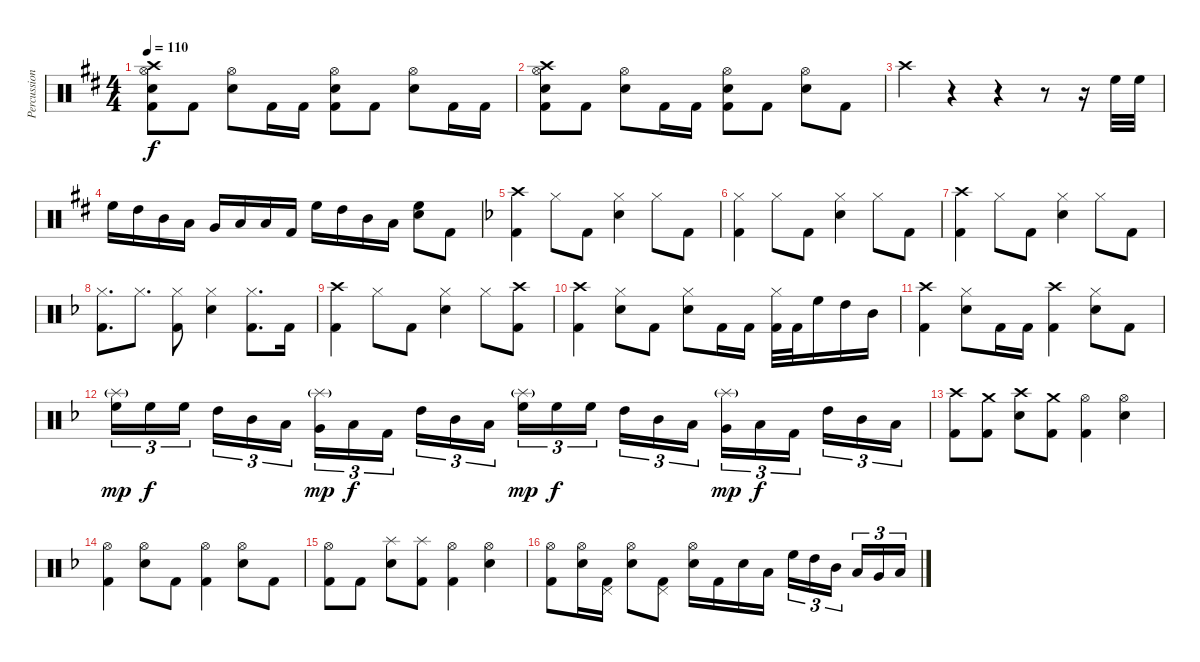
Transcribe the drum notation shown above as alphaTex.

\track ("Percussion" "Percussion") {instrument percussion}
\staff {score}
\articulation defaults
\ts (4 4)
\tempo 110
\clef neutral
\ks bminor
("Crash high (hit)" "Hi-Hat (open)" "Electric Snare (hit)" "Kick (hit) 2").8{dy f} "Kick (hit) 2".8 ("Hi-Hat (open)" "Electric Snare (hit)").8 "Kick (hit) 2".16 "Kick (hit) 2".16 ("Hi-Hat (open)" "Electric Snare (hit)" "Kick (hit) 2").8 "Kick (hit) 2".8 ("Hi-Hat (open)" "Electric Snare (hit)").8 "Kick (hit) 2".16 "Kick (hit) 2".16 |
("Crash high (hit)" "Hi-Hat (open)" "Electric Snare (hit)" "Kick (hit) 2").8 "Kick (hit) 2".8 ("Hi-Hat (open)" "Electric Snare (hit)").8 "Kick (hit) 2".16 "Kick (hit) 2".16 ("Hi-Hat (open)" "Electric Snare (hit)" "Kick (hit) 2").8 "Kick (hit) 2".8 ("Hi-Hat (open)" "Electric Snare (hit)").8 "Kick (hit) 2".8 |
"Crash high (hit)".4 r.4 r.4 r.8 r.16 "High Floor Tom (hit)".32 "High Floor Tom (hit)".32 |
"High Floor Tom (hit)".16 "High Tom (hit)".16 "Mid Tom (hit)".16 "Low Tom (hit)".16 "Very Low Tom (hit)".16 "Low Floor Tom (hit)".16 "Low Floor Tom (hit)".16 "Kick (hit) 2".16 "High Floor Tom (hit)".16 "High Tom (hit)".16 "Mid Tom (hit)".16 "Low Tom (hit)".16 ("Electric Snare (hit)" "High Floor Tom (hit)").8 "Kick (hit) 2".8 |
\ks dminor
("Crash high (hit)" "Kick (hit) 2").4 "Hi-Hat (closed)".8 "Kick (hit) 2".8 ("Hi-Hat (closed)" "Electric Snare (hit)").4 "Hi-Hat (closed)".8 "Kick (hit) 2".8 |
("Hi-Hat (closed)" "Kick (hit) 2").4 "Hi-Hat (closed)".8 "Kick (hit) 2".8 ("Hi-Hat (closed)" "Electric Snare (hit)").4 "Hi-Hat (closed)".8 "Kick (hit) 2".8 |
("Crash high (hit)" "Kick (hit) 2").4 "Hi-Hat (closed)".8 "Kick (hit) 2".8 ("Hi-Hat (closed)" "Electric Snare (hit)").4 "Hi-Hat (closed)".8 "Kick (hit) 2".8 |
("Hi-Hat (closed)" "Kick (hit) 2").8{d} "Hi-Hat (closed)".8{d} ("Hi-Hat (closed)" "Kick (hit) 2").8 ("Hi-Hat (closed)" "Electric Snare (hit)").4 ("Hi-Hat (closed)" "Kick (hit) 2").8{d} "Kick (hit) 2".16 |
("Crash high (hit)" "Kick (hit) 2").4 "Hi-Hat (closed)".8 "Kick (hit) 2".8 ("Hi-Hat (closed)" "Electric Snare (hit)").4 "Hi-Hat (closed)".8 ("Crash high (hit)" "Kick (hit) 2").8 |
("Crash high (hit)" "Kick (hit) 2").4 ("Hi-Hat (closed)" "Electric Snare (hit)").8 "Kick (hit) 2".8 ("Hi-Hat (closed)" "Electric Snare (hit)").8 "Kick (hit) 2".16 "Kick (hit) 2".16 ("Hi-Hat (closed)" "Kick (hit) 2").32 "Kick (hit) 2".32 "High Floor Tom (hit)".16 "High Tom (hit)".16 "Mid Tom (hit)".16 |
("Crash high (hit)" "Kick (hit) 2").4 ("Hi-Hat (closed)" "Electric Snare (hit)").8 "Kick (hit) 2".16 "Kick (hit) 2".16 ("Crash high (hit)" "Kick (hit) 2").4 ("Hi-Hat (closed)" "Electric Snare (hit)").8 "Kick (hit) 2".8 |
("Splash (hit)"{g} "High Floor Tom (hit)").16{tu (3 2) dy mp} "High Floor Tom (hit)".16{tu (3 2) dy f} "High Floor Tom (hit)".16{tu (3 2)} "High Tom (hit)".16{tu (3 2)} "Mid Tom (hit)".16{tu (3 2)} "Low Tom (hit)".16{tu (3 2)} ("Splash (hit)"{g} "Very Low Tom (hit)").16{tu (3 2) dy mp} "Low Floor Tom (hit)".16{tu (3 2) dy f} "Kick (hit) 2".16{tu (3 2)} "High Tom (hit)".16{tu (3 2)} "Mid Tom (hit)".16{tu (3 2)} "Low Tom (hit)".16{tu (3 2)} ("Splash (hit)"{g} "High Floor Tom (hit)").16{tu (3 2) dy mp} "High Floor Tom (hit)".16{tu (3 2) dy f} "High Floor Tom (hit)".16{tu (3 2)} "High Tom (hit)".16{tu (3 2)} "Mid Tom (hit)".16{tu (3 2)} "Low Tom (hit)".16{tu (3 2)} ("Splash (hit)"{g} "Very Low Tom (hit)").16{tu (3 2) dy mp} "Low Floor Tom (hit)".16{tu (3 2) dy f} "Kick (hit) 2".16{tu (3 2)} "High Tom (hit)".16{tu (3 2)} "Mid Tom (hit)".16{tu (3 2)} "Low Tom (hit)".16{tu (3 2)} |
("Crash high (hit)" "Kick (hit) 2").8 ("Crash medium (hit)" "Kick (hit) 2").8 ("Crash high (hit)" "Electric Snare (hit)").8 ("Crash medium (hit)" "Kick (hit) 2").8 ("Hi-Hat (open)" "Kick (hit) 2").4 ("Hi-Hat (open)" "Electric Snare (hit)").4 |
("Hi-Hat (open)" "Kick (hit) 2").4 ("Hi-Hat (open)" "Electric Snare (hit)").8 "Kick (hit) 2".8 ("Hi-Hat (open)" "Kick (hit) 2").4 ("Hi-Hat (open)" "Electric Snare (hit)").8 "Kick (hit) 2".8 |
("Hi-Hat (open)" "Kick (hit) 2").8 "Kick (hit) 2".8 ("Splash (hit)" "Electric Snare (hit)").8 ("Splash (hit)" "Kick (hit) 2").8 ("Hi-Hat (open)" "Kick (hit) 2").4 ("Hi-Hat (open)" "Electric Snare (hit)").4 |
("Hi-Hat (open)" "Kick (hit) 2").8 ("Hi-Hat (open)" "Electric Snare (hit)").16 ("Pedal Hi-Hat (hit)" "Kick (hit) 2").16 ("Hi-Hat (open)" "Electric Snare (hit)").8 ("Pedal Hi-Hat (hit)" "Kick (hit) 2").8 ("Hi-Hat (open)" "Electric Snare (hit)").16 "Kick (hit) 2".16 "Electric Snare (hit)".16 "Low Floor Tom (hit)".16 "High Floor Tom (hit)".16{tu (3 2)} "High Tom (hit)".16{tu (3 2)} "Mid Tom (hit)".16{tu (3 2)} "Low Tom (hit)".16{tu (3 2)} "Very Low Tom (hit)".16{tu (3 2)} "Low Floor Tom (hit)".16{tu (3 2)}
